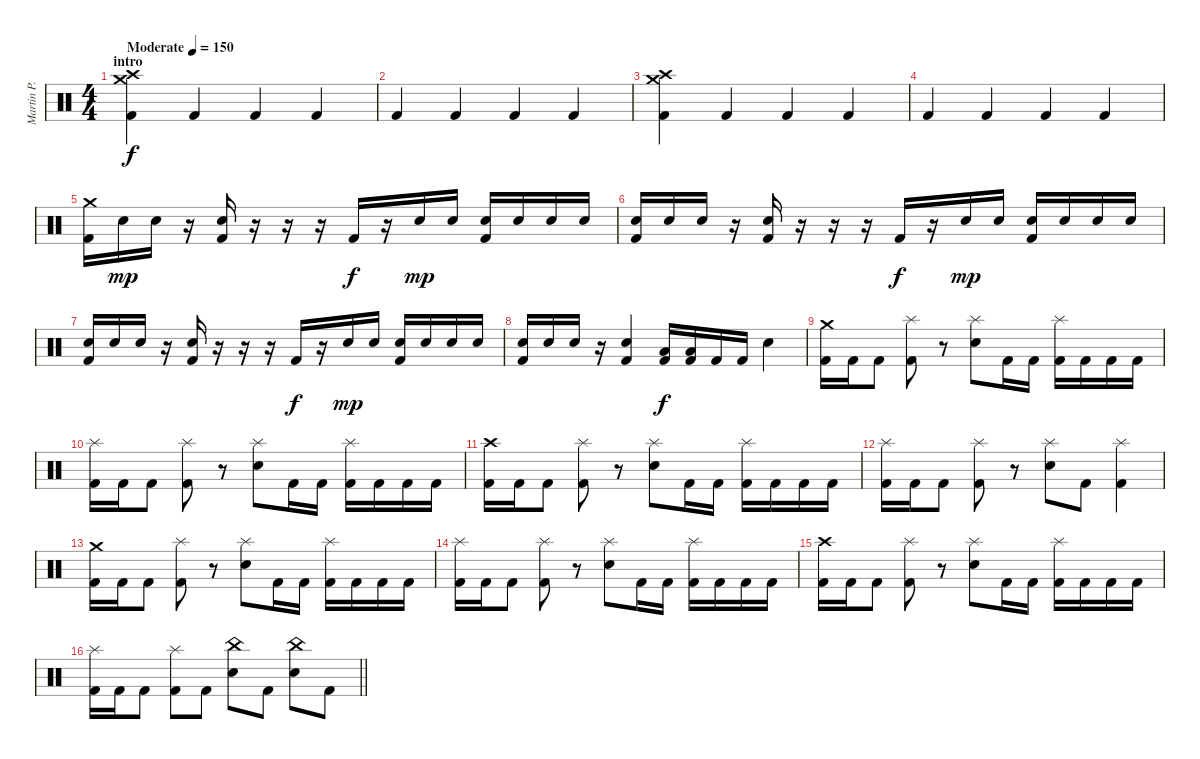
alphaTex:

\track ("Martin P." "Martin P.") {instrument percussion}
\staff {score}
\articulation defaults
\ts (4 4)
\section ("" "intro")
\tempo (150 "Moderate")
\clef neutral
\ks c
("Crash high (hit)" "Kick (hit) 2" "Crash medium (hit)").4{dy f} "Kick (hit) 2".4 "Kick (hit) 2".4 "Kick (hit) 2".4 |
"Kick (hit) 2".4 "Kick (hit) 2".4 "Kick (hit) 2".4 "Kick (hit) 2".4 |
("Crash high (hit)" "Crash medium (hit)" "Kick (hit) 2").4 "Kick (hit) 2".4 "Kick (hit) 2".4 "Kick (hit) 2".4 |
"Kick (hit) 2".4 "Kick (hit) 2".4 "Kick (hit) 2".4 "Kick (hit) 2".4 |
("Kick (hit) 2" "Crash medium (hit)").16 "Electric Snare (hit)".16{dy mp} "Electric Snare (hit)".16 r.16 ("Kick (hit) 2" "Electric Snare (hit)").16 r.16 r.16 r.16 "Kick (hit) 2".16{dy f} r.16 "Electric Snare (hit)".16{dy mp} "Electric Snare (hit)".16 ("Kick (hit) 2" "Electric Snare (hit)").16 "Electric Snare (hit)".16 "Electric Snare (hit)".16 "Electric Snare (hit)".16 |
("Kick (hit) 2" "Electric Snare (hit)").16 "Electric Snare (hit)".16 "Electric Snare (hit)".16 r.16 ("Kick (hit) 2" "Electric Snare (hit)").16 r.16 r.16 r.16 "Kick (hit) 2".16{dy f} r.16 "Electric Snare (hit)".16{dy mp} "Electric Snare (hit)".16 ("Kick (hit) 2" "Electric Snare (hit)").16 "Electric Snare (hit)".16 "Electric Snare (hit)".16 "Electric Snare (hit)".16 |
("Kick (hit) 2" "Electric Snare (hit)").16 "Electric Snare (hit)".16 "Electric Snare (hit)".16 r.16 ("Kick (hit) 2" "Electric Snare (hit)").16 r.16 r.16 r.16 "Kick (hit) 2".16{dy f} r.16 "Electric Snare (hit)".16{dy mp} "Electric Snare (hit)".16 ("Kick (hit) 2" "Electric Snare (hit)").16 "Electric Snare (hit)".16 "Electric Snare (hit)".16 "Electric Snare (hit)".16 |
("Kick (hit) 2" "Electric Snare (hit)").16 "Electric Snare (hit)".16 "Electric Snare (hit)".16 r.16 ("Electric Snare (hit)" "Kick (hit) 2").4 ("Low Tom (hit)" "Kick (hit) 2").16{dy f} ("Low Tom (hit)" "Kick (hit) 2").16 "Kick (hit) 2".16 "Kick (hit) 2".16 "Electric Snare (hit)".4 |
("Crash medium (hit)" "Kick (hit) 2").16 "Kick (hit) 2".16 "Kick (hit) 2".8 ("Splash (hit)" "Kick (hit) 2").8 r.8 ("Splash (hit)" "Electric Snare (hit)").8 "Kick (hit) 2".16 "Kick (hit) 2".16 ("Splash (hit)" "Kick (hit) 2").16 "Kick (hit) 2".16 "Kick (hit) 2".16 "Kick (hit) 2".16 |
("Splash (hit)" "Kick (hit) 2").16 "Kick (hit) 2".16 "Kick (hit) 2".8 ("Splash (hit)" "Kick (hit) 2").8 r.8 ("Splash (hit)" "Electric Snare (hit)").8 "Kick (hit) 2".16 "Kick (hit) 2".16 ("Splash (hit)" "Kick (hit) 2").16 "Kick (hit) 2".16 "Kick (hit) 2".16 "Kick (hit) 2".16 |
("Crash high (hit)" "Kick (hit) 2").16 "Kick (hit) 2".16 "Kick (hit) 2".8 ("Splash (hit)" "Kick (hit) 2").8 r.8 ("Splash (hit)" "Electric Snare (hit)").8 "Kick (hit) 2".16 "Kick (hit) 2".16 ("Splash (hit)" "Kick (hit) 2").16 "Kick (hit) 2".16 "Kick (hit) 2".16 "Kick (hit) 2".16 |
("Splash (hit)" "Kick (hit) 2").16 "Kick (hit) 2".16 "Kick (hit) 2".8 ("Splash (hit)" "Kick (hit) 2").8 r.8 ("Splash (hit)" "Electric Snare (hit)").8 "Kick (hit) 2".8 ("Splash (hit)" "Kick (hit) 2").4 |
("Crash medium (hit)" "Kick (hit) 2").16 "Kick (hit) 2".16 "Kick (hit) 2".8 ("Splash (hit)" "Kick (hit) 2").8 r.8 ("Splash (hit)" "Electric Snare (hit)").8 "Kick (hit) 2".16 "Kick (hit) 2".16 ("Splash (hit)" "Kick (hit) 2").16 "Kick (hit) 2".16 "Kick (hit) 2".16 "Kick (hit) 2".16 |
("Splash (hit)" "Kick (hit) 2").16 "Kick (hit) 2".16 "Kick (hit) 2".8 ("Splash (hit)" "Kick (hit) 2").8 r.8 ("Splash (hit)" "Electric Snare (hit)").8 "Kick (hit) 2".16 "Kick (hit) 2".16 ("Splash (hit)" "Kick (hit) 2").16 "Kick (hit) 2".16 "Kick (hit) 2".16 "Kick (hit) 2".16 |
("Crash high (hit)" "Kick (hit) 2").16 "Kick (hit) 2".16 "Kick (hit) 2".8 ("Splash (hit)" "Kick (hit) 2").8 r.8 ("Splash (hit)" "Electric Snare (hit)").8 "Kick (hit) 2".16 "Kick (hit) 2".16 ("Splash (hit)" "Kick (hit) 2").16 "Kick (hit) 2".16 "Kick (hit) 2".16 "Kick (hit) 2".16 |
\barLineRight lightlight
("Splash (hit)" "Kick (hit) 2").16 "Kick (hit) 2".16 "Kick (hit) 2".8 ("Splash (hit)" "Kick (hit) 2").8 "Kick (hit) 2".8 ("China (hit)" "Electric Snare (hit)").8 "Kick (hit) 2".8 ("China (hit)" "Electric Snare (hit)").8 "Kick (hit) 2".8
